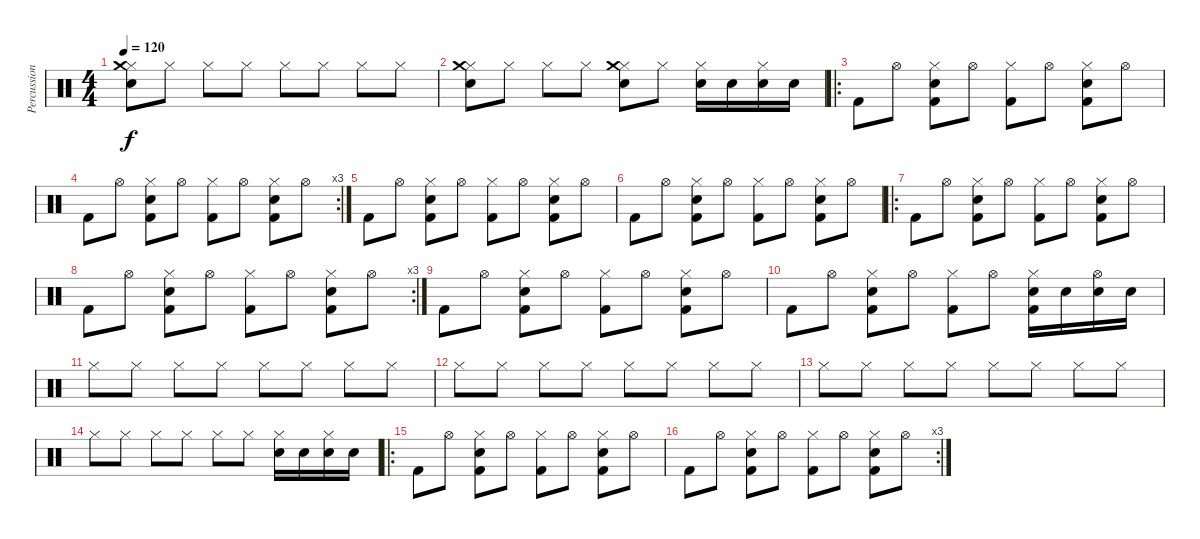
\track ("Percussions" "Percussion") {instrument percussion}
\staff {score}
\articulation defaults
\ts (4 4)
\tempo 120
\clef neutral
\ks c
("Hi-Hat (closed)" "Crash medium (hit)" "Electric Snare (hit)").8{dy f} "Hi-Hat (closed)".8 "Hi-Hat (closed)".8 "Hi-Hat (closed)".8 "Hi-Hat (closed)".8 "Hi-Hat (closed)".8 "Hi-Hat (closed)".8 "Hi-Hat (closed)".8 |
("Hi-Hat (closed)" "Crash medium (hit)" "Electric Snare (hit)").8 "Hi-Hat (closed)".8 "Hi-Hat (closed)".8 "Hi-Hat (closed)".8 ("Hi-Hat (closed)" "Crash medium (hit)" "Electric Snare (hit)").8 "Hi-Hat (closed)".8 ("Hi-Hat (closed)" "Electric Snare (hit)").16 "Electric Snare (hit)".16 ("Hi-Hat (closed)" "Electric Snare (hit)").16 "Electric Snare (hit)".16 |
\ro "Kick (hit) 2".8 "Hi-Hat (open)".8
("Kick (hit) 2" "Hi-Hat (closed)" "Electric Snare (hit)").8 "Hi-Hat (open)".8 ("Kick (hit) 2" "Hi-Hat (closed)").8 "Hi-Hat (open)".8 ("Kick (hit) 2" "Hi-Hat (closed)" "Electric Snare (hit)").8 "Hi-Hat (open)".8 |
\rc 3 "Kick (hit) 2".8 "Hi-Hat (open)".8
("Kick (hit) 2" "Hi-Hat (closed)" "Electric Snare (hit)").8 "Hi-Hat (open)".8 ("Kick (hit) 2" "Hi-Hat (closed)").8 "Hi-Hat (open)".8 ("Kick (hit) 2" "Hi-Hat (closed)" "Electric Snare (hit)").8 "Hi-Hat (open)".8 |
"Kick (hit) 2".8 "Hi-Hat (open)".8 ("Kick (hit) 2" "Hi-Hat (closed)" "Electric Snare (hit)").8 "Hi-Hat (open)".8 ("Kick (hit) 2" "Hi-Hat (closed)").8 "Hi-Hat (open)".8 ("Kick (hit) 2" "Hi-Hat (closed)" "Electric Snare (hit)").8 "Hi-Hat (open)".8 |
"Kick (hit) 2".8 "Hi-Hat (open)".8 ("Kick (hit) 2" "Hi-Hat (closed)" "Electric Snare (hit)").8 "Hi-Hat (open)".8 ("Kick (hit) 2" "Hi-Hat (closed)").8 "Hi-Hat (open)".8 ("Kick (hit) 2" "Hi-Hat (closed)" "Electric Snare (hit)").8 "Hi-Hat (open)".8 |
\ro "Kick (hit) 2".8 "Hi-Hat (open)".8
("Kick (hit) 2" "Hi-Hat (closed)" "Electric Snare (hit)").8 "Hi-Hat (open)".8 ("Kick (hit) 2" "Hi-Hat (closed)").8 "Hi-Hat (open)".8 ("Kick (hit) 2" "Hi-Hat (closed)" "Electric Snare (hit)").8 "Hi-Hat (open)".8 |
\rc 3 "Kick (hit) 2".8 "Hi-Hat (open)".8
("Kick (hit) 2" "Hi-Hat (closed)" "Electric Snare (hit)").8 "Hi-Hat (open)".8 ("Kick (hit) 2" "Hi-Hat (closed)").8 "Hi-Hat (open)".8 ("Kick (hit) 2" "Hi-Hat (closed)" "Electric Snare (hit)").8 "Hi-Hat (open)".8 |
"Kick (hit) 2".8 "Hi-Hat (open)".8 ("Kick (hit) 2" "Hi-Hat (closed)" "Electric Snare (hit)").8 "Hi-Hat (open)".8 ("Kick (hit) 2" "Hi-Hat (closed)").8 "Hi-Hat (open)".8 ("Kick (hit) 2" "Hi-Hat (closed)" "Electric Snare (hit)").8 "Hi-Hat (open)".8 |
"Kick (hit) 2".8 "Hi-Hat (open)".8 ("Kick (hit) 2" "Hi-Hat (closed)" "Electric Snare (hit)").8 "Hi-Hat (open)".8 ("Kick (hit) 2" "Hi-Hat (closed)").8 "Hi-Hat (open)".8 ("Kick (hit) 2" "Hi-Hat (closed)" "Electric Snare (hit)").16 "Electric Snare (hit)".16 ("Hi-Hat (open)" "Electric Snare (hit)").16 "Electric Snare (hit)".16 |
"Hi-Hat (closed)".8 "Hi-Hat (closed)".8 "Hi-Hat (closed)".8 "Hi-Hat (closed)".8 "Hi-Hat (closed)".8 "Hi-Hat (closed)".8 "Hi-Hat (closed)".8 "Hi-Hat (closed)".8 |
"Hi-Hat (closed)".8 "Hi-Hat (closed)".8 "Hi-Hat (closed)".8 "Hi-Hat (closed)".8 "Hi-Hat (closed)".8 "Hi-Hat (closed)".8 "Hi-Hat (closed)".8 "Hi-Hat (closed)".8 |
"Hi-Hat (closed)".8 "Hi-Hat (closed)".8 "Hi-Hat (closed)".8 "Hi-Hat (closed)".8 "Hi-Hat (closed)".8 "Hi-Hat (closed)".8 "Hi-Hat (closed)".8 "Hi-Hat (closed)".8 |
"Hi-Hat (closed)".8 "Hi-Hat (closed)".8 "Hi-Hat (closed)".8 "Hi-Hat (closed)".8 "Hi-Hat (closed)".8 "Hi-Hat (closed)".8 ("Hi-Hat (closed)" "Electric Snare (hit)").16 "Electric Snare (hit)".16 ("Hi-Hat (closed)" "Electric Snare (hit)").16 "Electric Snare (hit)".16 |
\ro "Kick (hit) 2".8 "Hi-Hat (open)".8
("Kick (hit) 2" "Hi-Hat (closed)" "Electric Snare (hit)").8 "Hi-Hat (open)".8 ("Kick (hit) 2" "Hi-Hat (closed)").8 "Hi-Hat (open)".8 ("Kick (hit) 2" "Hi-Hat (closed)" "Electric Snare (hit)").8 "Hi-Hat (open)".8 |
\rc 3 "Kick (hit) 2".8 "Hi-Hat (open)".8
("Kick (hit) 2" "Hi-Hat (closed)" "Electric Snare (hit)").8 "Hi-Hat (open)".8 ("Kick (hit) 2" "Hi-Hat (closed)").8 "Hi-Hat (open)".8 ("Kick (hit) 2" "Hi-Hat (closed)" "Electric Snare (hit)").8 "Hi-Hat (open)".8
